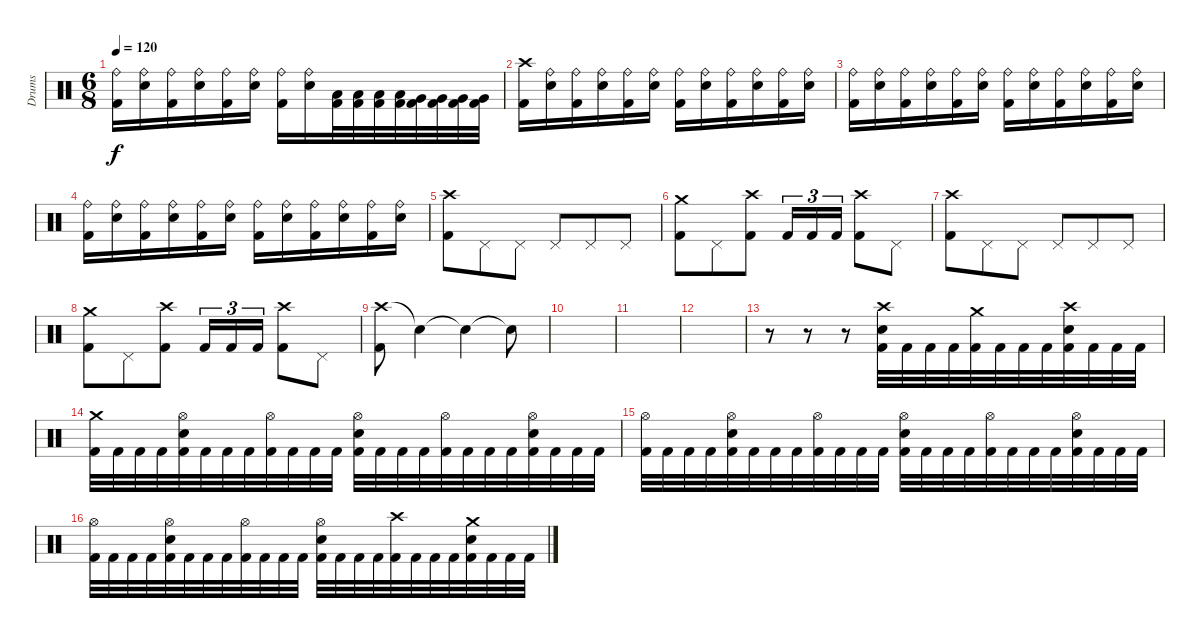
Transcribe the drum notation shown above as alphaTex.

\track ("Drums" "Drums") {instrument percussion}
\staff {score}
\articulation defaults
\ts (6 8)
\tempo 120
\clef neutral
\ks c
("Ride (bell)" "Kick (hit) 2").16{dy f} ("Ride (bell)" "Electric Snare (hit)").16 ("Ride (bell)" "Kick (hit) 2").16 ("Ride (bell)" "Electric Snare (hit)").16 ("Ride (bell)" "Kick (hit) 2").16 ("Ride (bell)" "Electric Snare (hit)").16 ("Ride (bell)" "Kick (hit) 2").16 ("Ride (bell)" "Electric Snare (hit)").16 ("Kick (hit) 2" "Low Tom (hit)").32 ("Kick (hit) 2" "Low Tom (hit)").32 ("Kick (hit) 2" "Low Tom (hit)").32 ("Kick (hit) 2" "Low Tom (hit)").32 ("Kick (hit) 2" "Very Low Tom (hit)").32 ("Kick (hit) 2" "Very Low Tom (hit)").32 ("Kick (hit) 2" "Very Low Tom (hit)").32 ("Kick (hit) 2" "Very Low Tom (hit)").32 |
("Crash high (hit)" "Kick (hit) 2").16 ("Ride (bell)" "Electric Snare (hit)").16 ("Ride (bell)" "Kick (hit) 2").16 ("Ride (bell)" "Electric Snare (hit)").16 ("Ride (bell)" "Kick (hit) 2").16 ("Ride (bell)" "Electric Snare (hit)").16 ("Ride (bell)" "Kick (hit) 2").16 ("Ride (bell)" "Electric Snare (hit)").16 ("Ride (bell)" "Kick (hit) 2").16 ("Ride (bell)" "Electric Snare (hit)").16 ("Ride (bell)" "Kick (hit) 2").16 ("Ride (bell)" "Electric Snare (hit)").16 |
("Ride (bell)" "Kick (hit) 2").16 ("Ride (bell)" "Electric Snare (hit)").16 ("Ride (bell)" "Kick (hit) 2").16 ("Ride (bell)" "Electric Snare (hit)").16 ("Ride (bell)" "Kick (hit) 2").16 ("Ride (bell)" "Electric Snare (hit)").16 ("Ride (bell)" "Kick (hit) 2").16 ("Ride (bell)" "Electric Snare (hit)").16 ("Ride (bell)" "Kick (hit) 2").16 ("Ride (bell)" "Electric Snare (hit)").16 ("Ride (bell)" "Kick (hit) 2").16 ("Ride (bell)" "Electric Snare (hit)").16 |
("Ride (bell)" "Kick (hit) 2").16 ("Ride (bell)" "Electric Snare (hit)").16 ("Ride (bell)" "Kick (hit) 2").16 ("Ride (bell)" "Electric Snare (hit)").16 ("Ride (bell)" "Kick (hit) 2").16 ("Ride (bell)" "Electric Snare (hit)").16 ("Ride (bell)" "Kick (hit) 2").16 ("Ride (bell)" "Electric Snare (hit)").16 ("Ride (bell)" "Kick (hit) 2").16 ("Ride (bell)" "Electric Snare (hit)").16 ("Ride (bell)" "Kick (hit) 2").16 ("Ride (bell)" "Electric Snare (hit)").16 |
("Crash high (hit)" "Kick (hit) 2").8 "Pedal Hi-Hat (hit)".8 "Pedal Hi-Hat (hit)".8 "Pedal Hi-Hat (hit)".8 "Pedal Hi-Hat (hit)".8 "Pedal Hi-Hat (hit)".8 |
("Crash medium (hit)" "Kick (hit) 2").8 "Pedal Hi-Hat (hit)".8 ("Crash high (hit)" "Kick (hit) 2").8 "Kick (hit) 2".16{tu (3 2)} "Kick (hit) 2".16{tu (3 2)} "Kick (hit) 2".16{tu (3 2)} ("Crash high (hit)" "Kick (hit) 2").8 "Pedal Hi-Hat (hit)".8 |
("Crash high (hit)" "Kick (hit) 2").8 "Pedal Hi-Hat (hit)".8 "Pedal Hi-Hat (hit)".8 "Pedal Hi-Hat (hit)".8 "Pedal Hi-Hat (hit)".8 "Pedal Hi-Hat (hit)".8 |
("Crash medium (hit)" "Kick (hit) 2").8 "Pedal Hi-Hat (hit)".8 ("Crash high (hit)" "Kick (hit) 2").8 "Kick (hit) 2".16{tu (3 2)} "Kick (hit) 2".16{tu (3 2)} "Kick (hit) 2".16{tu (3 2)} ("Crash high (hit)" "Kick (hit) 2").8 "Pedal Hi-Hat (hit)".8 |
("Crash high (hit)" "Kick (hit) 2").8 "Snare (hit)"{t}.4 "Snare (hit)"{t}.4 "Snare (hit)"{t}.8 |
|
|
|
r.8 r.8 r.8 ("Crash high (hit)" "Electric Snare (hit)" "Kick (hit) 2").32 "Kick (hit) 2".32 "Kick (hit) 2".32 "Kick (hit) 2".32 ("Crash medium (hit)" "Kick (hit) 2").32 "Kick (hit) 2".32 "Kick (hit) 2".32 "Kick (hit) 2".32 ("Crash high (hit)" "Electric Snare (hit)" "Kick (hit) 2").32 "Kick (hit) 2".32 "Kick (hit) 2".32 "Kick (hit) 2".32 |
("Crash medium (hit)" "Kick (hit) 2").32 "Kick (hit) 2".32 "Kick (hit) 2".32 "Kick (hit) 2".32 ("Hi-Hat (open)" "Electric Snare (hit)" "Kick (hit) 2").32 "Kick (hit) 2".32 "Kick (hit) 2".32 "Kick (hit) 2".32 ("Hi-Hat (open)" "Kick (hit) 2").32 "Kick (hit) 2".32 "Kick (hit) 2".32 "Kick (hit) 2".32 ("Hi-Hat (open)" "Electric Snare (hit)" "Kick (hit) 2").32 "Kick (hit) 2".32 "Kick (hit) 2".32 "Kick (hit) 2".32 ("Hi-Hat (open)" "Kick (hit) 2").32 "Kick (hit) 2".32 "Kick (hit) 2".32 "Kick (hit) 2".32 ("Hi-Hat (open)" "Electric Snare (hit)" "Kick (hit) 2").32 "Kick (hit) 2".32 "Kick (hit) 2".32 "Kick (hit) 2".32 |
("Hi-Hat (open)" "Kick (hit) 2").32 "Kick (hit) 2".32 "Kick (hit) 2".32 "Kick (hit) 2".32 ("Hi-Hat (open)" "Electric Snare (hit)" "Kick (hit) 2").32 "Kick (hit) 2".32 "Kick (hit) 2".32 "Kick (hit) 2".32 ("Hi-Hat (open)" "Kick (hit) 2").32 "Kick (hit) 2".32 "Kick (hit) 2".32 "Kick (hit) 2".32 ("Hi-Hat (open)" "Electric Snare (hit)" "Kick (hit) 2").32 "Kick (hit) 2".32 "Kick (hit) 2".32 "Kick (hit) 2".32 ("Hi-Hat (open)" "Kick (hit) 2").32 "Kick (hit) 2".32 "Kick (hit) 2".32 "Kick (hit) 2".32 ("Hi-Hat (open)" "Electric Snare (hit)" "Kick (hit) 2").32 "Kick (hit) 2".32 "Kick (hit) 2".32 "Kick (hit) 2".32 |
("Hi-Hat (open)" "Kick (hit) 2").32 "Kick (hit) 2".32 "Kick (hit) 2".32 "Kick (hit) 2".32 ("Hi-Hat (open)" "Electric Snare (hit)" "Kick (hit) 2").32 "Kick (hit) 2".32 "Kick (hit) 2".32 "Kick (hit) 2".32 ("Hi-Hat (open)" "Kick (hit) 2").32 "Kick (hit) 2".32 "Kick (hit) 2".32 "Kick (hit) 2".32 ("Hi-Hat (open)" "Electric Snare (hit)" "Kick (hit) 2").32 "Kick (hit) 2".32 "Kick (hit) 2".32 "Kick (hit) 2".32 ("Crash high (hit)" "Kick (hit) 2").32 "Kick (hit) 2".32 "Kick (hit) 2".32 "Kick (hit) 2".32 ("Crash medium (hit)" "Electric Snare (hit)" "Kick (hit) 2").32 "Kick (hit) 2".32 "Kick (hit) 2".32 "Kick (hit) 2".32
